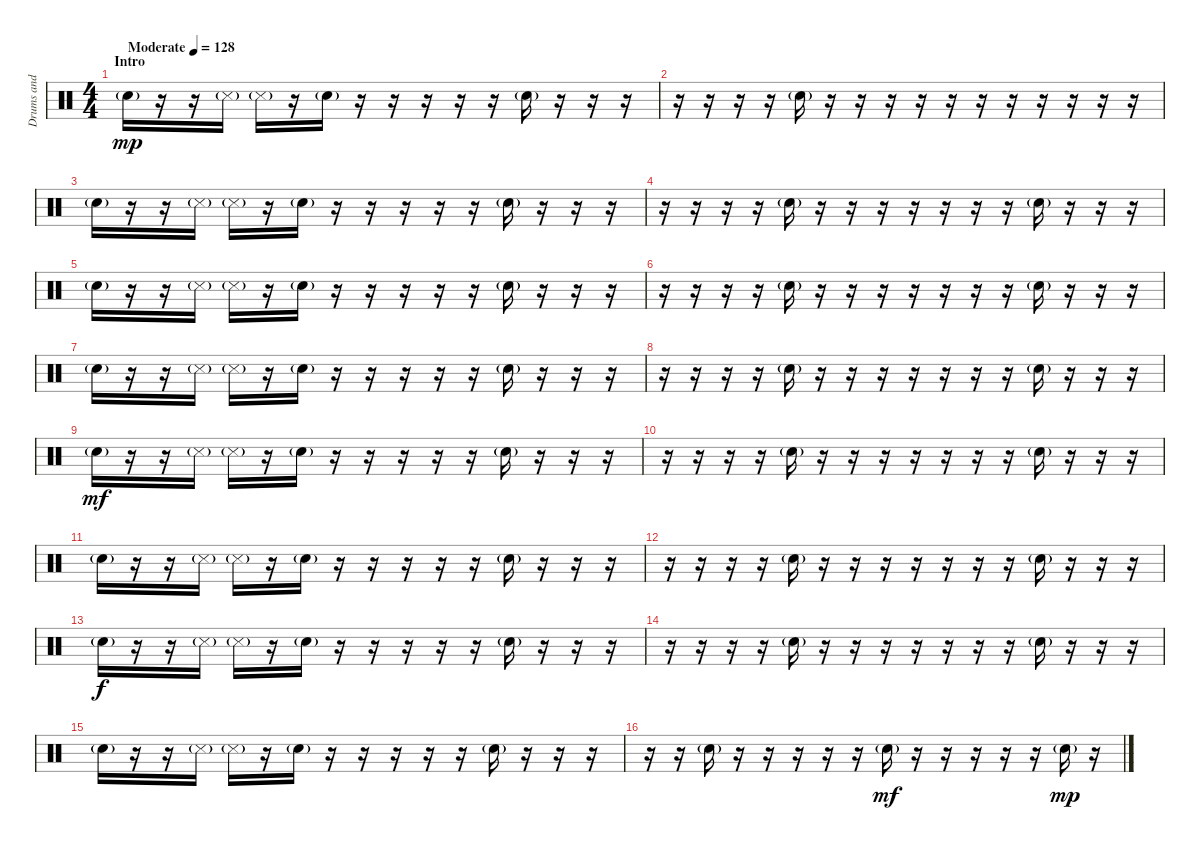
\track ("Drums and Percussions" "Drums and ") {instrument percussion}
\staff {score}
\articulation defaults
\ts (4 4)
\section ("" "Intro")
\tempo (128 "Moderate")
\clef neutral
\ks c "Electric Snare (hit)"{g}.16{dy mp}
r.16 r.16 "Snare (side stick) 3"{g}.16 "Snare (side stick) 3"{g}.16 r.16 "Electric Snare (hit)"{g}.16 r.16 r.16 r.16 r.16 r.16 "Electric Snare (hit)"{g}.16 r.16 r.16 r.16 |
r.16 r.16 r.16 r.16 "Electric Snare (hit)"{g}.16 r.16 r.16 r.16 r.16 r.16 r.16 r.16 r.16 r.16 r.16 r.16 |
"Electric Snare (hit)"{g}.16 r.16 r.16 "Snare (side stick) 3"{g}.16 "Snare (side stick) 3"{g}.16 r.16 "Electric Snare (hit)"{g}.16 r.16 r.16 r.16 r.16 r.16 "Electric Snare (hit)"{g}.16 r.16 r.16 r.16 |
r.16 r.16 r.16 r.16 "Electric Snare (hit)"{g}.16 r.16 r.16 r.16 r.16 r.16 r.16 r.16 "Electric Snare (hit)"{g}.16 r.16 r.16 r.16 |
"Electric Snare (hit)"{g}.16 r.16 r.16 "Snare (side stick) 3"{g}.16 "Snare (side stick) 3"{g}.16 r.16 "Electric Snare (hit)"{g}.16 r.16 r.16 r.16 r.16 r.16 "Electric Snare (hit)"{g}.16 r.16 r.16 r.16 |
r.16 r.16 r.16 r.16 "Electric Snare (hit)"{g}.16 r.16 r.16 r.16 r.16 r.16 r.16 r.16 "Electric Snare (hit)"{g}.16 r.16 r.16 r.16 |
"Electric Snare (hit)"{g}.16 r.16 r.16 "Snare (side stick) 3"{g}.16 "Snare (side stick) 3"{g}.16 r.16 "Electric Snare (hit)"{g}.16 r.16 r.16 r.16 r.16 r.16 "Electric Snare (hit)"{g}.16 r.16 r.16 r.16 |
r.16 r.16 r.16 r.16 "Electric Snare (hit)"{g}.16 r.16 r.16 r.16 r.16 r.16 r.16 r.16 "Electric Snare (hit)"{g}.16 r.16 r.16 r.16 |
"Electric Snare (hit)"{g}.16{dy mf} r.16 r.16 "Snare (side stick) 3"{g}.16 "Snare (side stick) 3"{g}.16 r.16 "Electric Snare (hit)"{g}.16 r.16 r.16 r.16 r.16 r.16 "Electric Snare (hit)"{g}.16 r.16 r.16 r.16 |
r.16 r.16 r.16 r.16 "Electric Snare (hit)"{g}.16 r.16 r.16 r.16 r.16 r.16 r.16 r.16 "Electric Snare (hit)"{g}.16 r.16 r.16 r.16 |
"Electric Snare (hit)"{g}.16 r.16 r.16 "Snare (side stick) 3"{g}.16 "Snare (side stick) 3"{g}.16 r.16 "Electric Snare (hit)"{g}.16 r.16 r.16 r.16 r.16 r.16 "Electric Snare (hit)"{g}.16 r.16 r.16 r.16 |
r.16 r.16 r.16 r.16 "Electric Snare (hit)"{g}.16 r.16 r.16 r.16 r.16 r.16 r.16 r.16 "Electric Snare (hit)"{g}.16 r.16 r.16 r.16 |
"Electric Snare (hit)"{g}.16{dy f} r.16 r.16 "Snare (side stick) 3"{g}.16 "Snare (side stick) 3"{g}.16 r.16 "Electric Snare (hit)"{g}.16 r.16 r.16 r.16 r.16 r.16 "Electric Snare (hit)"{g}.16 r.16 r.16 r.16 |
r.16 r.16 r.16 r.16 "Electric Snare (hit)"{g}.16 r.16 r.16 r.16 r.16 r.16 r.16 r.16 "Electric Snare (hit)"{g}.16 r.16 r.16 r.16 |
"Electric Snare (hit)"{g}.16 r.16 r.16 "Snare (side stick) 3"{g}.16 "Snare (side stick) 3"{g}.16 r.16 "Electric Snare (hit)"{g}.16 r.16 r.16 r.16 r.16 r.16 "Electric Snare (hit)"{g}.16 r.16 r.16 r.16 |
r.16 r.16 "Electric Snare (hit)"{g}.16 r.16 r.16 r.16 r.16 r.16 "Electric Snare (hit)"{g}.16{dy mf} r.16 r.16 r.16 r.16 r.16 "Electric Snare (hit)"{g}.16{dy mp} r.16
